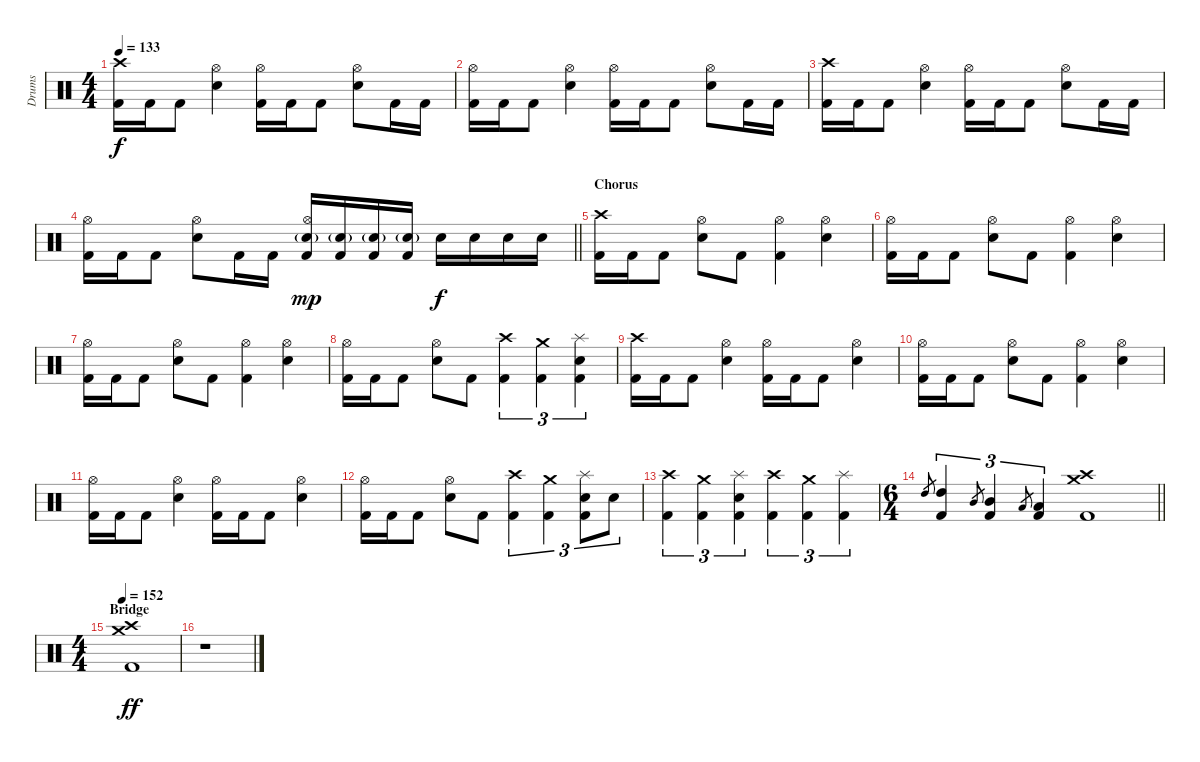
\track ("Drums" "Drums") {instrument percussion}
\staff {score}
\articulation defaults
\ts (4 4)
\tempo 133
\clef neutral
\ks aminor
("Crash high (hit)" "Kick (hit) 2").16{dy f} "Kick (hit) 2".16 "Kick (hit) 2".8 ("Hi-Hat (open)" "Electric Snare (hit)").4 ("Hi-Hat (open)" "Kick (hit) 2").16 "Kick (hit) 2".16 "Kick (hit) 2".8 ("Hi-Hat (open)" "Electric Snare (hit)").8 "Kick (hit) 2".16 "Kick (hit) 2".16 |
("Hi-Hat (open)" "Kick (hit) 2").16 "Kick (hit) 2".16 "Kick (hit) 2".8 ("Hi-Hat (open)" "Electric Snare (hit)").4 ("Hi-Hat (open)" "Kick (hit) 2").16 "Kick (hit) 2".16 "Kick (hit) 2".8 ("Hi-Hat (open)" "Electric Snare (hit)").8 "Kick (hit) 2".16 "Kick (hit) 2".16 |
("Crash high (hit)" "Kick (hit) 2").16 "Kick (hit) 2".16 "Kick (hit) 2".8 ("Hi-Hat (open)" "Electric Snare (hit)").4 ("Hi-Hat (open)" "Kick (hit) 2").16 "Kick (hit) 2".16 "Kick (hit) 2".8 ("Hi-Hat (open)" "Electric Snare (hit)").8 "Kick (hit) 2".16 "Kick (hit) 2".16 |
\barLineRight lightlight
("Hi-Hat (open)" "Kick (hit) 2").16 "Kick (hit) 2".16 "Kick (hit) 2".8 ("Hi-Hat (open)" "Electric Snare (hit)").8 "Kick (hit) 2".16 "Kick (hit) 2".16 ("Hi-Hat (open)" "Electric Snare (hit)"{g} "Kick (hit) 2").16{dy mp} ("Electric Snare (hit)"{g} "Kick (hit) 2").16 ("Electric Snare (hit)"{g} "Kick (hit) 2").16 ("Electric Snare (hit)"{g} "Kick (hit) 2").16 "Electric Snare (hit)".16{dy f} "Electric Snare (hit)".16 "Electric Snare (hit)".16 "Electric Snare (hit)".16 |
\section ("" "Chorus")
("Crash high (hit)" "Kick (hit) 2").16 "Kick (hit) 2".16 "Kick (hit) 2".8 ("Hi-Hat (open)" "Electric Snare (hit)").8 "Kick (hit) 2".8 ("Hi-Hat (open)" "Kick (hit) 2").4 ("Hi-Hat (open)" "Electric Snare (hit)").4 |
("Hi-Hat (open)" "Kick (hit) 2").16 "Kick (hit) 2".16 "Kick (hit) 2".8 ("Hi-Hat (open)" "Electric Snare (hit)").8 "Kick (hit) 2".8 ("Hi-Hat (open)" "Kick (hit) 2").4 ("Hi-Hat (open)" "Electric Snare (hit)").4 |
("Hi-Hat (open)" "Kick (hit) 2").16 "Kick (hit) 2".16 "Kick (hit) 2".8 ("Hi-Hat (open)" "Electric Snare (hit)").8 "Kick (hit) 2".8 ("Hi-Hat (open)" "Kick (hit) 2").4 ("Hi-Hat (open)" "Electric Snare (hit)").4 |
("Hi-Hat (open)" "Kick (hit) 2").16 "Kick (hit) 2".16 "Kick (hit) 2".8 ("Hi-Hat (open)" "Electric Snare (hit)").8 "Kick (hit) 2".8 ("Crash high (hit)" "Kick (hit) 2").4{tu (3 2)} ("Crash medium (hit)" "Kick (hit) 2").4{tu (3 2)} ("Splash (hit)" "Electric Snare (hit)" "Kick (hit) 2").4{tu (3 2)} |
("Crash high (hit)" "Kick (hit) 2").16 "Kick (hit) 2".16 "Kick (hit) 2".8 ("Hi-Hat (open)" "Electric Snare (hit)").4 ("Hi-Hat (open)" "Kick (hit) 2").16 "Kick (hit) 2".16 "Kick (hit) 2".8 ("Hi-Hat (open)" "Electric Snare (hit)").4 |
("Hi-Hat (open)" "Kick (hit) 2").16 "Kick (hit) 2".16 "Kick (hit) 2".8 ("Hi-Hat (open)" "Electric Snare (hit)").8 "Kick (hit) 2".8 ("Hi-Hat (open)" "Kick (hit) 2").4 ("Hi-Hat (open)" "Electric Snare (hit)").4 |
("Hi-Hat (open)" "Kick (hit) 2").16 "Kick (hit) 2".16 "Kick (hit) 2".8 ("Hi-Hat (open)" "Electric Snare (hit)").4 ("Hi-Hat (open)" "Kick (hit) 2").16 "Kick (hit) 2".16 "Kick (hit) 2".8 ("Hi-Hat (open)" "Electric Snare (hit)").4 |
("Hi-Hat (open)" "Kick (hit) 2").16 "Kick (hit) 2".16 "Kick (hit) 2".8 ("Hi-Hat (open)" "Electric Snare (hit)").8 "Kick (hit) 2".8 ("Crash high (hit)" "Kick (hit) 2").4{tu (3 2)} ("Crash medium (hit)" "Kick (hit) 2").4{tu (3 2)} ("Splash (hit)" "Electric Snare (hit)" "Kick (hit) 2").8{tu (3 2)} "Electric Snare (hit)".8{tu (3 2)} |
("Crash high (hit)" "Kick (hit) 2").4{tu (3 2)} ("Crash medium (hit)" "Kick (hit) 2").4{tu (3 2)} ("Splash (hit)" "Electric Snare (hit)" "Kick (hit) 2").4{tu (3 2)} ("Crash high (hit)" "Kick (hit) 2").4{tu (3 2)} ("Crash medium (hit)" "Kick (hit) 2").4{tu (3 2)} ("Splash (hit)" "Kick (hit) 2").4{tu (3 2)} |
\ts (6 4)
\barLineRight lightlight "High Tom (hit)".8{gr}
("High Tom (hit)" "Kick (hit) 2").4{tu (3 2)} "Mid Tom (hit)".8{gr} ("Mid Tom (hit)" "Kick (hit) 2").4{tu (3 2)} "Low Tom (hit)".8{gr} ("Low Tom (hit)" "Kick (hit) 2").4{tu (3 2)} ("Crash high (hit)" "Crash medium (hit)" "Kick (hit) 2").1 |
\ts (4 4)
\section ("" "Bridge")
\tempo 152
("Crash high (hit)" "Crash medium (hit)" "Kick (hit) 2").1{dy ff} |
r.1
